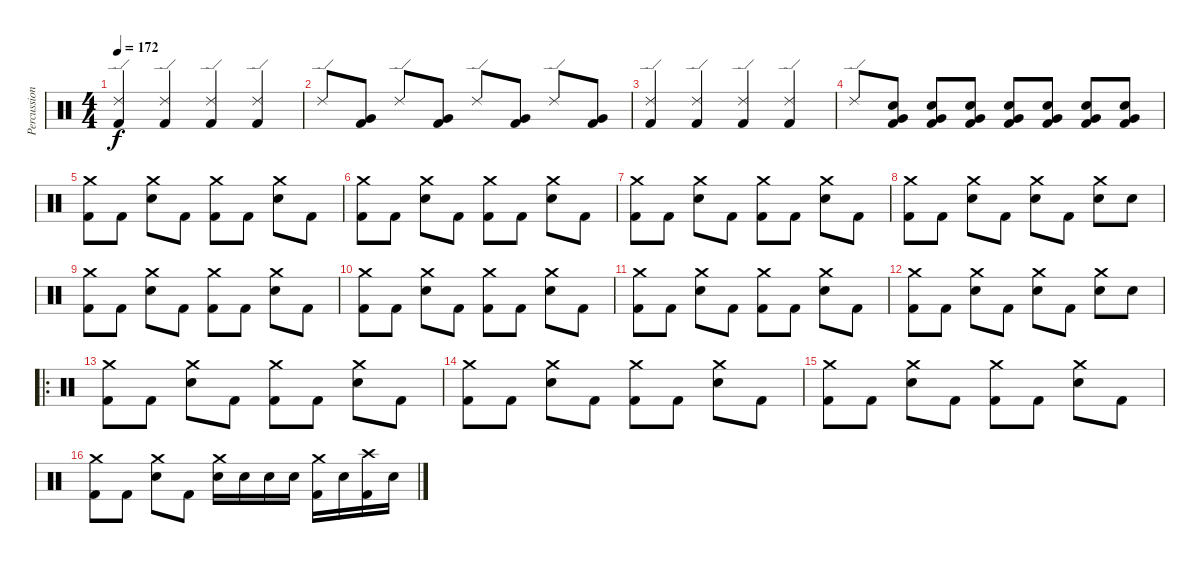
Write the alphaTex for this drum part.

\track ("Percussions" "Percussion") {instrument percussion}
\staff {score}
\articulation defaults
\ts (4 4)
\tempo 172
\clef neutral
\ks c
("Ride (edge) 2" "Kick (hit) 2").4{dy f} ("Ride (edge) 2" "Kick (hit) 2").4 ("Ride (edge) 2" "Kick (hit) 2").4 ("Ride (edge) 2" "Kick (hit) 2").4 |
"Ride (edge) 2".8 ("Kick (hit) 2" "Very Low Tom (hit)").8 "Ride (edge) 2".8 ("Kick (hit) 2" "Very Low Tom (hit)").8 "Ride (edge) 2".8 ("Kick (hit) 2" "Very Low Tom (hit)").8 "Ride (edge) 2".8 ("Kick (hit) 2" "Very Low Tom (hit)").8 |
("Ride (edge) 2" "Kick (hit) 2").4 ("Ride (edge) 2" "Kick (hit) 2").4 ("Ride (edge) 2" "Kick (hit) 2").4 ("Ride (edge) 2" "Kick (hit) 2").4 |
"Ride (edge) 2".8 ("Kick (hit) 2" "Very Low Tom (hit)" "Electric Snare (hit)").8 ("Kick (hit) 2" "Very Low Tom (hit)" "Electric Snare (hit)").8 ("Kick (hit) 2" "Very Low Tom (hit)" "Electric Snare (hit)").8 ("Kick (hit) 2" "Very Low Tom (hit)" "Electric Snare (hit)").8 ("Kick (hit) 2" "Very Low Tom (hit)" "Electric Snare (hit)").8 ("Kick (hit) 2" "Very Low Tom (hit)" "Electric Snare (hit)").8 ("Kick (hit) 2" "Very Low Tom (hit)" "Electric Snare (hit)").8 |
("Crash medium (hit)" "Kick (hit) 2").8 "Kick (hit) 2".8 ("Crash medium (hit)" "Electric Snare (hit)").8 "Kick (hit) 2".8 ("Crash medium (hit)" "Kick (hit) 2").8 "Kick (hit) 2".8 ("Crash medium (hit)" "Electric Snare (hit)").8 "Kick (hit) 2".8 |
("Crash medium (hit)" "Kick (hit) 2").8 "Kick (hit) 2".8 ("Crash medium (hit)" "Electric Snare (hit)").8 "Kick (hit) 2".8 ("Crash medium (hit)" "Kick (hit) 2").8 "Kick (hit) 2".8 ("Crash medium (hit)" "Electric Snare (hit)").8 "Kick (hit) 2".8 |
("Crash medium (hit)" "Kick (hit) 2").8 "Kick (hit) 2".8 ("Crash medium (hit)" "Electric Snare (hit)").8 "Kick (hit) 2".8 ("Crash medium (hit)" "Kick (hit) 2").8 "Kick (hit) 2".8 ("Crash medium (hit)" "Electric Snare (hit)").8 "Kick (hit) 2".8 |
("Crash medium (hit)" "Kick (hit) 2").8 "Kick (hit) 2".8 ("Crash medium (hit)" "Electric Snare (hit)").8 "Kick (hit) 2".8 ("Crash medium (hit)" "Electric Snare (hit)").8 "Kick (hit) 2".8 ("Crash medium (hit)" "Electric Snare (hit)").8 "Electric Snare (hit)".8 |
("Crash medium (hit)" "Kick (hit) 2").8 "Kick (hit) 2".8 ("Crash medium (hit)" "Electric Snare (hit)").8 "Kick (hit) 2".8 ("Crash medium (hit)" "Kick (hit) 2").8 "Kick (hit) 2".8 ("Crash medium (hit)" "Electric Snare (hit)").8 "Kick (hit) 2".8 |
("Crash medium (hit)" "Kick (hit) 2").8 "Kick (hit) 2".8 ("Crash medium (hit)" "Electric Snare (hit)").8 "Kick (hit) 2".8 ("Crash medium (hit)" "Kick (hit) 2").8 "Kick (hit) 2".8 ("Crash medium (hit)" "Electric Snare (hit)").8 "Kick (hit) 2".8 |
("Crash medium (hit)" "Kick (hit) 2").8 "Kick (hit) 2".8 ("Crash medium (hit)" "Electric Snare (hit)").8 "Kick (hit) 2".8 ("Crash medium (hit)" "Kick (hit) 2").8 "Kick (hit) 2".8 ("Crash medium (hit)" "Electric Snare (hit)").8 "Kick (hit) 2".8 |
("Crash medium (hit)" "Kick (hit) 2").8 "Kick (hit) 2".8 ("Crash medium (hit)" "Electric Snare (hit)").8 "Kick (hit) 2".8 ("Crash medium (hit)" "Electric Snare (hit)").8 "Kick (hit) 2".8 ("Crash medium (hit)" "Electric Snare (hit)").8 "Electric Snare (hit)".8 |
\ro
("Crash medium (hit)" "Kick (hit) 2").8 "Kick (hit) 2".8 ("Crash medium (hit)" "Electric Snare (hit)").8 "Kick (hit) 2".8 ("Crash medium (hit)" "Kick (hit) 2").8 "Kick (hit) 2".8 ("Crash medium (hit)" "Electric Snare (hit)").8 "Kick (hit) 2".8 |
("Crash medium (hit)" "Kick (hit) 2").8 "Kick (hit) 2".8 ("Crash medium (hit)" "Electric Snare (hit)").8 "Kick (hit) 2".8 ("Crash medium (hit)" "Kick (hit) 2").8 "Kick (hit) 2".8 ("Crash medium (hit)" "Electric Snare (hit)").8 "Kick (hit) 2".8 |
("Crash medium (hit)" "Kick (hit) 2").8 "Kick (hit) 2".8 ("Crash medium (hit)" "Electric Snare (hit)").8 "Kick (hit) 2".8 ("Crash medium (hit)" "Kick (hit) 2").8 "Kick (hit) 2".8 ("Crash medium (hit)" "Electric Snare (hit)").8 "Kick (hit) 2".8 |
("Crash medium (hit)" "Kick (hit) 2").8 "Kick (hit) 2".8 ("Crash medium (hit)" "Electric Snare (hit)").8 "Kick (hit) 2".8 ("Crash medium (hit)" "Electric Snare (hit)").16 "Electric Snare (hit)".16 "Electric Snare (hit)".16 "Electric Snare (hit)".16 ("Crash medium (hit)" "Kick (hit) 2").16 "Electric Snare (hit)".16 ("Crash high (hit)" "Kick (hit) 2").16 "Electric Snare (hit)".16
